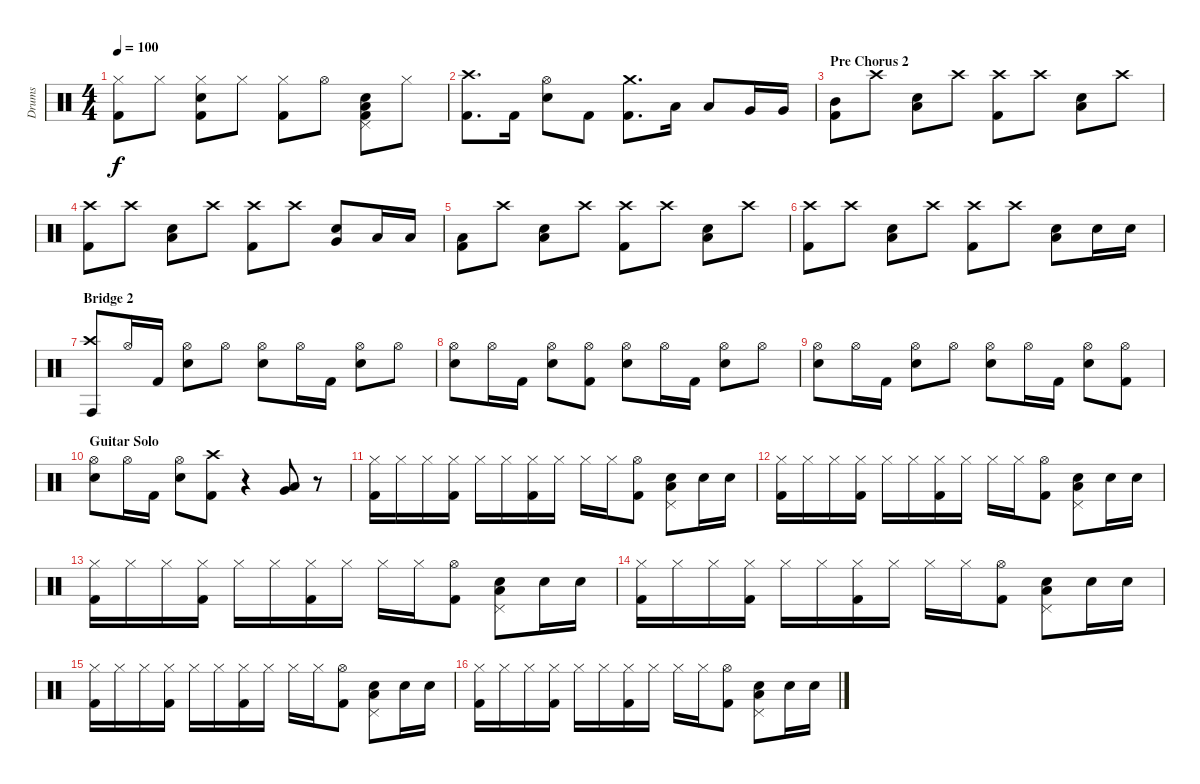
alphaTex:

\track ("Drums" "Drums") {instrument percussion}
\staff {score}
\articulation defaults
\ts (4 4)
\tempo 100
\clef neutral
\ks c
("Kick (hit) 2" "Hi-Hat (closed)").8{dy f} "Hi-Hat (closed)".8 ("Kick (hit) 2" "Hi-Hat (closed)" "Snare (hit) 2").8 "Hi-Hat (closed)".8 ("Kick (hit) 2" "Hi-Hat (closed)").8 "Hi-Hat (open)".8 ("Kick (hit) 2" "Pedal Hi-Hat (hit)" "Low Floor Tom (hit)" "Snare (hit) 2").8 "Hi-Hat (closed)".8 |
("Crash high (hit)" "Kick (hit) 2").8{d} "Kick (hit) 2".16 ("Snare (hit) 2" "Hi-Hat (open)").8 "Kick (hit) 2".8 ("Crash medium (hit)" "Kick (hit) 2").8{d} "Low Tom (hit)".16 "Low Tom (hit)".8 "Very Low Tom (hit)".16 "Very Low Tom (hit)".16 |
\section ("" "Pre Chorus 2")
("Kick (hit) 2" "Mid Tom (hit)").8 "Crash high (hit)".8 ("Low Floor Tom (hit)" "Snare (hit) 2").8 "Crash high (hit)".8 ("Kick (hit) 2" "Crash high (hit)").8 "Crash high (hit)".8 ("Low Floor Tom (hit)" "Snare (hit) 2").8 "Crash high (hit)".8 |
("Kick (hit) 2" "Crash high (hit)").8 "Crash high (hit)".8 ("Snare (hit) 2" "Low Floor Tom (hit)").8 "Crash high (hit)".8 ("Crash high (hit)" "Kick (hit) 2").8 "Crash high (hit)".8 ("Snare (hit) 2" "Very Low Tom (hit)").8 "Low Tom (hit)".16 "Low Tom (hit)".16 |
("Low Tom (hit)" "Kick (hit) 2").8 "Crash high (hit)".8 ("Low Floor Tom (hit)" "Snare (hit) 2").8 "Crash high (hit)".8 ("Kick (hit) 2" "Crash high (hit)").8 "Crash high (hit)".8 ("Low Floor Tom (hit)" "Snare (hit) 2").8 "Crash high (hit)".8 |
("Crash high (hit)" "Kick (hit) 2").8 "Crash high (hit)".8 ("Low Floor Tom (hit)" "Snare (hit) 2").8 "Crash high (hit)".8 ("Kick (hit) 2" "Crash high (hit)").8 "Crash high (hit)".8 ("Snare (hit) 2" "Low Floor Tom (hit)").8 "Snare (hit) 2".16 "Snare (hit) 2".16 |
\section ("" "Bridge 2")
("Crash high (hit)" "Conga high (hit)").8 "Hi-Hat (open)".16 "Kick (hit) 2".16 ("Snare (hit) 2" "Hi-Hat (open)").8 "Hi-Hat (open)".8 ("Hi-Hat (open)" "Snare (hit) 2").8 "Hi-Hat (open)".16 "Kick (hit) 2".16 ("Hi-Hat (open)" "Snare (hit) 2").8 "Hi-Hat (open)".8 |
("Snare (hit) 2" "Hi-Hat (open)").8 "Hi-Hat (open)".16 "Kick (hit) 2".16 ("Snare (hit) 2" "Hi-Hat (open)").8 ("Kick (hit) 2" "Hi-Hat (open)").8 ("Hi-Hat (open)" "Snare (hit) 2").8 "Hi-Hat (open)".16 "Kick (hit) 2".16 ("Snare (hit) 2" "Hi-Hat (open)").8 "Hi-Hat (open)".8 |
("Hi-Hat (open)" "Snare (hit) 2").8 "Hi-Hat (open)".16 "Kick (hit) 2".16 ("Hi-Hat (open)" "Snare (hit) 2").8 "Hi-Hat (open)".8 ("Hi-Hat (open)" "Snare (hit) 2").8 "Hi-Hat (open)".16 "Kick (hit) 2".16 ("Hi-Hat (open)" "Snare (hit) 2").8 ("Kick (hit) 2" "Hi-Hat (open)").8 |
\section ("" "Guitar Solo")
("Hi-Hat (open)" "Snare (hit) 2").8 "Hi-Hat (open)".16 "Kick (hit) 2".16 ("Hi-Hat (open)" "Snare (hit) 2").8 ("Crash high (hit)" "Kick (hit) 2").8 r.4 ("Low Floor Tom (hit)" "Very Low Tom (hit)").8 r.8 |
("Kick (hit) 2" "Hi-Hat (closed)").16 "Hi-Hat (closed)".16 "Hi-Hat (closed)".16 ("Hi-Hat (closed)" "Kick (hit) 2").16 "Hi-Hat (closed)".16 "Hi-Hat (closed)".16 ("Hi-Hat (closed)" "Kick (hit) 2").16 "Hi-Hat (closed)".16 "Hi-Hat (closed)".16 "Hi-Hat (closed)".16 ("Kick (hit) 2" "Hi-Hat (open)").8 ("Snare (hit) 2" "Low Floor Tom (hit)" "Pedal Hi-Hat (hit)").8 "Snare (hit) 2".16 "Snare (hit) 2".16 |
("Kick (hit) 2" "Hi-Hat (closed)").16 "Hi-Hat (closed)".16 "Hi-Hat (closed)".16 ("Hi-Hat (closed)" "Kick (hit) 2").16 "Hi-Hat (closed)".16 "Hi-Hat (closed)".16 ("Hi-Hat (closed)" "Kick (hit) 2").16 "Hi-Hat (closed)".16 "Hi-Hat (closed)".16 "Hi-Hat (closed)".16 ("Kick (hit) 2" "Hi-Hat (open)").8 ("Snare (hit) 2" "Low Floor Tom (hit)" "Pedal Hi-Hat (hit)").8 "Snare (hit) 2".16 "Snare (hit) 2".16 |
("Kick (hit) 2" "Hi-Hat (closed)").16 "Hi-Hat (closed)".16 "Hi-Hat (closed)".16 ("Hi-Hat (closed)" "Kick (hit) 2").16 "Hi-Hat (closed)".16 "Hi-Hat (closed)".16 ("Hi-Hat (closed)" "Kick (hit) 2").16 "Hi-Hat (closed)".16 "Hi-Hat (closed)".16 "Hi-Hat (closed)".16 ("Kick (hit) 2" "Hi-Hat (open)").8 ("Snare (hit) 2" "Low Floor Tom (hit)" "Pedal Hi-Hat (hit)").8 "Snare (hit) 2".16 "Snare (hit) 2".16 |
("Kick (hit) 2" "Hi-Hat (closed)").16 "Hi-Hat (closed)".16 "Hi-Hat (closed)".16 ("Hi-Hat (closed)" "Kick (hit) 2").16 "Hi-Hat (closed)".16 "Hi-Hat (closed)".16 ("Hi-Hat (closed)" "Kick (hit) 2").16 "Hi-Hat (closed)".16 "Hi-Hat (closed)".16 "Hi-Hat (closed)".16 ("Kick (hit) 2" "Hi-Hat (open)").8 ("Snare (hit) 2" "Low Floor Tom (hit)" "Pedal Hi-Hat (hit)").8 "Snare (hit) 2".16 "Snare (hit) 2".16 |
("Kick (hit) 2" "Hi-Hat (closed)").16 "Hi-Hat (closed)".16 "Hi-Hat (closed)".16 ("Hi-Hat (closed)" "Kick (hit) 2").16 "Hi-Hat (closed)".16 "Hi-Hat (closed)".16 ("Hi-Hat (closed)" "Kick (hit) 2").16 "Hi-Hat (closed)".16 "Hi-Hat (closed)".16 "Hi-Hat (closed)".16 ("Kick (hit) 2" "Hi-Hat (open)").8 ("Snare (hit) 2" "Low Floor Tom (hit)" "Pedal Hi-Hat (hit)").8 "Snare (hit) 2".16 "Snare (hit) 2".16 |
("Kick (hit) 2" "Hi-Hat (closed)").16 "Hi-Hat (closed)".16 "Hi-Hat (closed)".16 ("Hi-Hat (closed)" "Kick (hit) 2").16 "Hi-Hat (closed)".16 "Hi-Hat (closed)".16 ("Hi-Hat (closed)" "Kick (hit) 2").16 "Hi-Hat (closed)".16 "Hi-Hat (closed)".16 "Hi-Hat (closed)".16 ("Kick (hit) 2" "Hi-Hat (open)").8 ("Snare (hit) 2" "Low Floor Tom (hit)" "Pedal Hi-Hat (hit)").8 "Snare (hit) 2".16 "Snare (hit) 2".16
